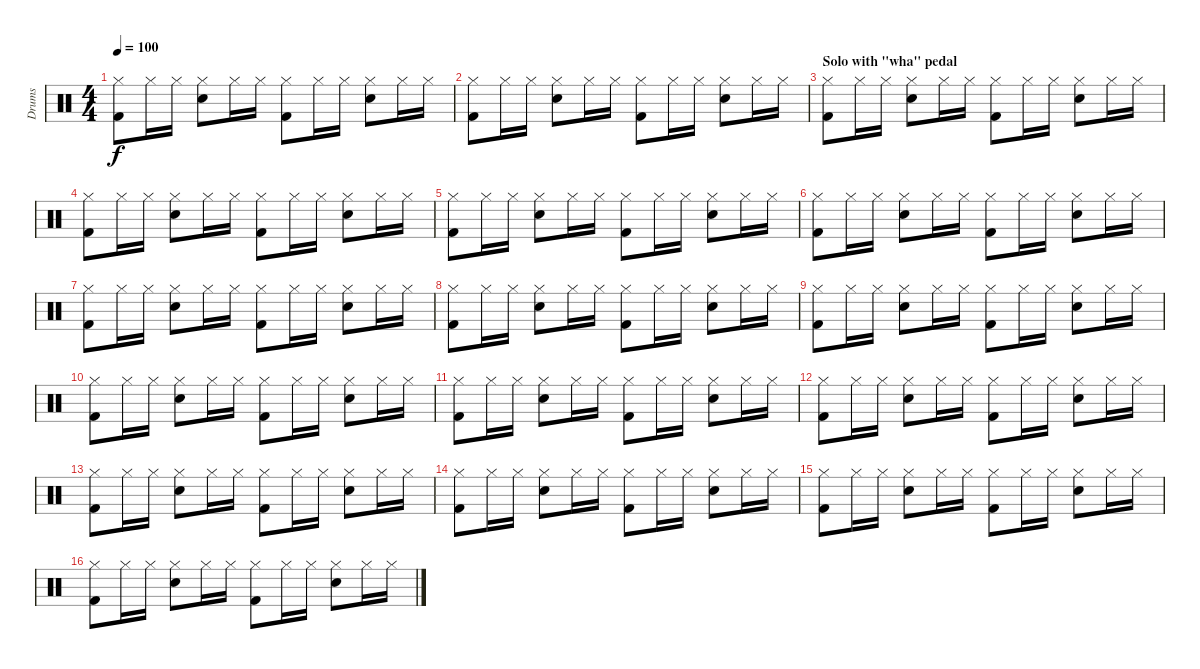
\track ("Drums" "Drums") {instrument percussion}
\staff {score}
\articulation defaults
\ts (4 4)
\tempo 100
\clef neutral
\ks c
("Hi-Hat (closed)" "Kick (hit) 2").8{dy f} "Hi-Hat (closed)".16 "Hi-Hat (closed)".16 ("Hi-Hat (closed)" "Snare (hit) 2").8 "Hi-Hat (closed)".16 "Hi-Hat (closed)".16 ("Hi-Hat (closed)" "Kick (hit) 2").8 "Hi-Hat (closed)".16 "Hi-Hat (closed)".16 ("Hi-Hat (closed)" "Snare (hit) 2").8 "Hi-Hat (closed)".16 "Hi-Hat (closed)".16 |
("Hi-Hat (closed)" "Kick (hit) 2").8 "Hi-Hat (closed)".16 "Hi-Hat (closed)".16 ("Hi-Hat (closed)" "Snare (hit) 2").8 "Hi-Hat (closed)".16 "Hi-Hat (closed)".16 ("Hi-Hat (closed)" "Kick (hit) 2").8 "Hi-Hat (closed)".16 "Hi-Hat (closed)".16 ("Hi-Hat (closed)" "Snare (hit) 2").8 "Hi-Hat (closed)".16 "Hi-Hat (closed)".16 |
\section ("" "Solo with \"wha\" pedal")
("Hi-Hat (closed)" "Kick (hit) 2").8 "Hi-Hat (closed)".16 "Hi-Hat (closed)".16 ("Hi-Hat (closed)" "Snare (hit) 2").8 "Hi-Hat (closed)".16 "Hi-Hat (closed)".16 ("Hi-Hat (closed)" "Kick (hit) 2").8 "Hi-Hat (closed)".16 "Hi-Hat (closed)".16 ("Hi-Hat (closed)" "Snare (hit) 2").8 "Hi-Hat (closed)".16 "Hi-Hat (closed)".16 |
("Hi-Hat (closed)" "Kick (hit) 2").8 "Hi-Hat (closed)".16 "Hi-Hat (closed)".16 ("Hi-Hat (closed)" "Snare (hit) 2").8 "Hi-Hat (closed)".16 "Hi-Hat (closed)".16 ("Hi-Hat (closed)" "Kick (hit) 2").8 "Hi-Hat (closed)".16 "Hi-Hat (closed)".16 ("Hi-Hat (closed)" "Snare (hit) 2").8 "Hi-Hat (closed)".16 "Hi-Hat (closed)".16 |
("Hi-Hat (closed)" "Kick (hit) 2").8 "Hi-Hat (closed)".16 "Hi-Hat (closed)".16 ("Hi-Hat (closed)" "Snare (hit) 2").8 "Hi-Hat (closed)".16 "Hi-Hat (closed)".16 ("Hi-Hat (closed)" "Kick (hit) 2").8 "Hi-Hat (closed)".16 "Hi-Hat (closed)".16 ("Hi-Hat (closed)" "Snare (hit) 2").8 "Hi-Hat (closed)".16 "Hi-Hat (closed)".16 |
("Hi-Hat (closed)" "Kick (hit) 2").8 "Hi-Hat (closed)".16 "Hi-Hat (closed)".16 ("Hi-Hat (closed)" "Snare (hit) 2").8 "Hi-Hat (closed)".16 "Hi-Hat (closed)".16 ("Hi-Hat (closed)" "Kick (hit) 2").8 "Hi-Hat (closed)".16 "Hi-Hat (closed)".16 ("Hi-Hat (closed)" "Snare (hit) 2").8 "Hi-Hat (closed)".16 "Hi-Hat (closed)".16 |
("Hi-Hat (closed)" "Kick (hit) 2").8 "Hi-Hat (closed)".16 "Hi-Hat (closed)".16 ("Hi-Hat (closed)" "Snare (hit) 2").8 "Hi-Hat (closed)".16 "Hi-Hat (closed)".16 ("Hi-Hat (closed)" "Kick (hit) 2").8 "Hi-Hat (closed)".16 "Hi-Hat (closed)".16 ("Hi-Hat (closed)" "Snare (hit) 2").8 "Hi-Hat (closed)".16 "Hi-Hat (closed)".16 |
("Hi-Hat (closed)" "Kick (hit) 2").8 "Hi-Hat (closed)".16 "Hi-Hat (closed)".16 ("Hi-Hat (closed)" "Snare (hit) 2").8 "Hi-Hat (closed)".16 "Hi-Hat (closed)".16 ("Hi-Hat (closed)" "Kick (hit) 2").8 "Hi-Hat (closed)".16 "Hi-Hat (closed)".16 ("Hi-Hat (closed)" "Snare (hit) 2").8 "Hi-Hat (closed)".16 "Hi-Hat (closed)".16 |
("Hi-Hat (closed)" "Kick (hit) 2").8 "Hi-Hat (closed)".16 "Hi-Hat (closed)".16 ("Hi-Hat (closed)" "Snare (hit) 2").8 "Hi-Hat (closed)".16 "Hi-Hat (closed)".16 ("Hi-Hat (closed)" "Kick (hit) 2").8 "Hi-Hat (closed)".16 "Hi-Hat (closed)".16 ("Hi-Hat (closed)" "Snare (hit) 2").8 "Hi-Hat (closed)".16 "Hi-Hat (closed)".16 |
("Hi-Hat (closed)" "Kick (hit) 2").8 "Hi-Hat (closed)".16 "Hi-Hat (closed)".16 ("Hi-Hat (closed)" "Snare (hit) 2").8 "Hi-Hat (closed)".16 "Hi-Hat (closed)".16 ("Hi-Hat (closed)" "Kick (hit) 2").8 "Hi-Hat (closed)".16 "Hi-Hat (closed)".16 ("Hi-Hat (closed)" "Snare (hit) 2").8 "Hi-Hat (closed)".16 "Hi-Hat (closed)".16 |
("Hi-Hat (closed)" "Kick (hit) 2").8 "Hi-Hat (closed)".16 "Hi-Hat (closed)".16 ("Hi-Hat (closed)" "Snare (hit) 2").8 "Hi-Hat (closed)".16 "Hi-Hat (closed)".16 ("Hi-Hat (closed)" "Kick (hit) 2").8 "Hi-Hat (closed)".16 "Hi-Hat (closed)".16 ("Hi-Hat (closed)" "Snare (hit) 2").8 "Hi-Hat (closed)".16 "Hi-Hat (closed)".16 |
("Hi-Hat (closed)" "Kick (hit) 2").8 "Hi-Hat (closed)".16 "Hi-Hat (closed)".16 ("Hi-Hat (closed)" "Snare (hit) 2").8 "Hi-Hat (closed)".16 "Hi-Hat (closed)".16 ("Hi-Hat (closed)" "Kick (hit) 2").8 "Hi-Hat (closed)".16 "Hi-Hat (closed)".16 ("Hi-Hat (closed)" "Snare (hit) 2").8 "Hi-Hat (closed)".16 "Hi-Hat (closed)".16 |
("Hi-Hat (closed)" "Kick (hit) 2").8 "Hi-Hat (closed)".16 "Hi-Hat (closed)".16 ("Hi-Hat (closed)" "Snare (hit) 2").8 "Hi-Hat (closed)".16 "Hi-Hat (closed)".16 ("Hi-Hat (closed)" "Kick (hit) 2").8 "Hi-Hat (closed)".16 "Hi-Hat (closed)".16 ("Hi-Hat (closed)" "Snare (hit) 2").8 "Hi-Hat (closed)".16 "Hi-Hat (closed)".16 |
("Hi-Hat (closed)" "Kick (hit) 2").8 "Hi-Hat (closed)".16 "Hi-Hat (closed)".16 ("Hi-Hat (closed)" "Snare (hit) 2").8 "Hi-Hat (closed)".16 "Hi-Hat (closed)".16 ("Hi-Hat (closed)" "Kick (hit) 2").8 "Hi-Hat (closed)".16 "Hi-Hat (closed)".16 ("Hi-Hat (closed)" "Snare (hit) 2").8 "Hi-Hat (closed)".16 "Hi-Hat (closed)".16 |
("Hi-Hat (closed)" "Kick (hit) 2").8 "Hi-Hat (closed)".16 "Hi-Hat (closed)".16 ("Hi-Hat (closed)" "Snare (hit) 2").8 "Hi-Hat (closed)".16 "Hi-Hat (closed)".16 ("Hi-Hat (closed)" "Kick (hit) 2").8 "Hi-Hat (closed)".16 "Hi-Hat (closed)".16 ("Hi-Hat (closed)" "Snare (hit) 2").8 "Hi-Hat (closed)".16 "Hi-Hat (closed)".16 |
("Hi-Hat (closed)" "Kick (hit) 2").8 "Hi-Hat (closed)".16 "Hi-Hat (closed)".16 ("Hi-Hat (closed)" "Snare (hit) 2").8 "Hi-Hat (closed)".16 "Hi-Hat (closed)".16 ("Hi-Hat (closed)" "Kick (hit) 2").8 "Hi-Hat (closed)".16 "Hi-Hat (closed)".16 ("Hi-Hat (closed)" "Snare (hit) 2").8 "Hi-Hat (closed)".16 "Hi-Hat (closed)".16
